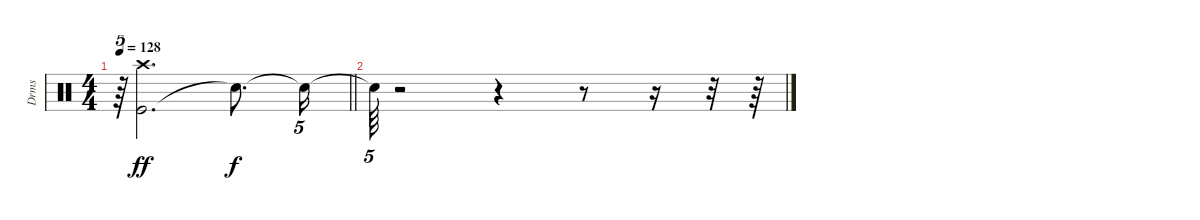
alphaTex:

\track ("Drms" "Drms") {instrument percussion}
\staff {score}
\articulation defaults
\ts (4 4)
\tempo 128
\clef neutral
\barLineRight lightlight
\ks c
r.64{tu (5 4) dy ff} ("Kick (hit)" "Crash high (hit)").2{d} "Snare (hit)"{t}.8{d dy f} "Snare (hit)"{t}.16{tu (5 4)} |
"Snare (hit)"{t}.64{tu (5 4)} r.2 r.4 r.8 r.16 r.32 r.64
